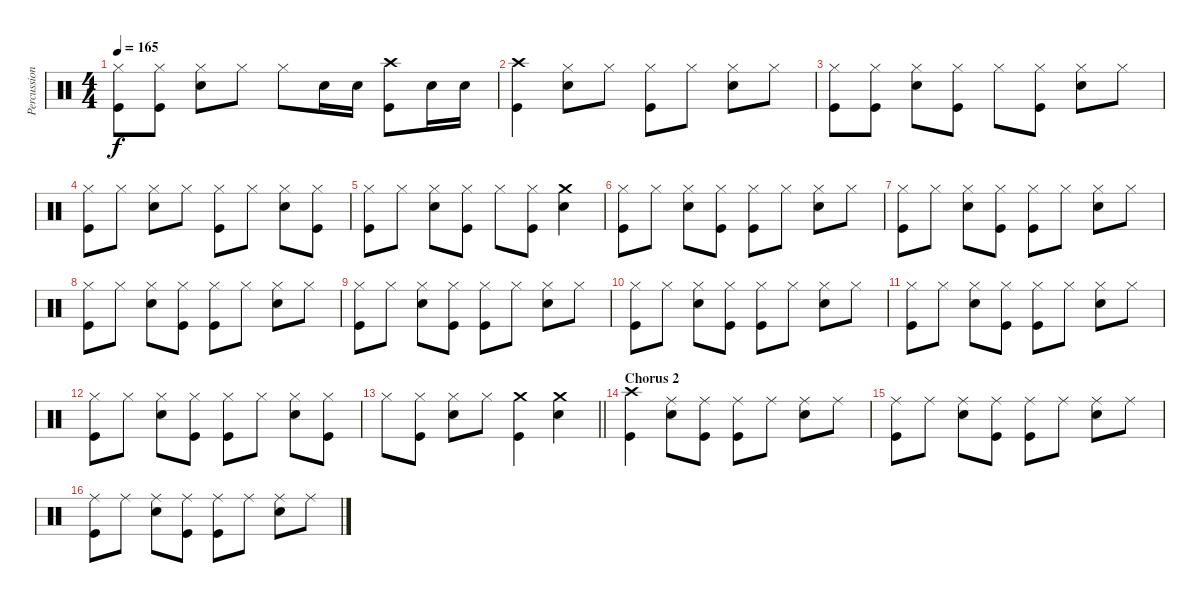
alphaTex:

\track ("Percussion" "Percussion") {instrument percussion}
\staff {score}
\articulation defaults
\ts (4 4)
\tempo 165
\clef neutral
\ks c
("Kick (hit)" "Hi-Hat (closed)").8{dy f} ("Kick (hit)" "Hi-Hat (closed)").8 ("Hi-Hat (closed)" "Snare (hit) 2").8 "Hi-Hat (closed)".8 "Hi-Hat (closed)".8 "Snare (hit) 2".16 "Snare (hit) 2".16 ("Kick (hit)" "Crash high (hit)").8 "Snare (hit) 2".16 "Snare (hit) 2".16 |
("Kick (hit)" "Crash high (hit)").4 ("Hi-Hat (closed)" "Snare (hit) 2").8 "Hi-Hat (closed)".8 ("Kick (hit)" "Hi-Hat (closed)").8 "Hi-Hat (closed)".8 ("Hi-Hat (closed)" "Snare (hit) 2").8 "Hi-Hat (closed)".8 |
("Kick (hit)" "Hi-Hat (closed)").8 ("Kick (hit)" "Hi-Hat (closed)").8 ("Hi-Hat (closed)" "Snare (hit) 2").8 ("Kick (hit)" "Hi-Hat (closed)").8 "Hi-Hat (closed)".8 ("Kick (hit)" "Hi-Hat (closed)").8 ("Hi-Hat (closed)" "Snare (hit) 2").8 "Hi-Hat (closed)".8 |
("Kick (hit)" "Hi-Hat (closed)").8 "Hi-Hat (closed)".8 ("Hi-Hat (closed)" "Snare (hit) 2").8 "Hi-Hat (closed)".8 ("Kick (hit)" "Hi-Hat (closed)").8 "Hi-Hat (closed)".8 ("Hi-Hat (closed)" "Snare (hit) 2").8 ("Kick (hit)" "Hi-Hat (closed)").8 |
("Kick (hit)" "Hi-Hat (closed)").8 "Hi-Hat (closed)".8 ("Hi-Hat (closed)" "Snare (hit) 2").8 ("Kick (hit)" "Hi-Hat (closed)").8 "Hi-Hat (closed)".8 ("Kick (hit)" "Hi-Hat (closed)").8 ("Crash medium (hit)" "Snare (hit) 2").4 |
("Kick (hit)" "Hi-Hat (closed)").8 "Hi-Hat (closed)".8 ("Hi-Hat (closed)" "Snare (hit) 2").8 ("Kick (hit)" "Hi-Hat (closed)").8 ("Kick (hit)" "Hi-Hat (closed)").8 "Hi-Hat (closed)".8 ("Hi-Hat (closed)" "Snare (hit) 2").8 "Hi-Hat (closed)".8 |
("Kick (hit)" "Hi-Hat (closed)").8 "Hi-Hat (closed)".8 ("Hi-Hat (closed)" "Snare (hit) 2").8 ("Kick (hit)" "Hi-Hat (closed)").8 ("Kick (hit)" "Hi-Hat (closed)").8 "Hi-Hat (closed)".8 ("Hi-Hat (closed)" "Snare (hit) 2").8 "Hi-Hat (closed)".8 |
("Kick (hit)" "Hi-Hat (closed)").8 "Hi-Hat (closed)".8 ("Hi-Hat (closed)" "Snare (hit) 2").8 ("Kick (hit)" "Hi-Hat (closed)").8 ("Kick (hit)" "Hi-Hat (closed)").8 "Hi-Hat (closed)".8 ("Hi-Hat (closed)" "Snare (hit) 2").8 "Hi-Hat (closed)".8 |
("Kick (hit)" "Hi-Hat (closed)").8 "Hi-Hat (closed)".8 ("Hi-Hat (closed)" "Snare (hit) 2").8 ("Kick (hit)" "Hi-Hat (closed)").8 ("Kick (hit)" "Hi-Hat (closed)").8 "Hi-Hat (closed)".8 ("Hi-Hat (closed)" "Snare (hit) 2").8 "Hi-Hat (closed)".8 |
("Kick (hit)" "Hi-Hat (closed)").8 "Hi-Hat (closed)".8 ("Hi-Hat (closed)" "Snare (hit) 2").8 ("Kick (hit)" "Hi-Hat (closed)").8 ("Kick (hit)" "Hi-Hat (closed)").8 "Hi-Hat (closed)".8 ("Hi-Hat (closed)" "Snare (hit) 2").8 "Hi-Hat (closed)".8 |
("Kick (hit)" "Hi-Hat (closed)").8 "Hi-Hat (closed)".8 ("Hi-Hat (closed)" "Snare (hit) 2").8 ("Kick (hit)" "Hi-Hat (closed)").8 ("Kick (hit)" "Hi-Hat (closed)").8 "Hi-Hat (closed)".8 ("Hi-Hat (closed)" "Snare (hit) 2").8 "Hi-Hat (closed)".8 |
("Kick (hit)" "Hi-Hat (closed)").8 "Hi-Hat (closed)".8 ("Hi-Hat (closed)" "Snare (hit) 2").8 ("Kick (hit)" "Hi-Hat (closed)").8 ("Kick (hit)" "Hi-Hat (closed)").8 "Hi-Hat (closed)".8 ("Hi-Hat (closed)" "Snare (hit) 2").8 ("Kick (hit)" "Hi-Hat (closed)").8 |
\barLineRight lightlight "Hi-Hat (closed)".8
("Kick (hit)" "Hi-Hat (closed)").8 ("Hi-Hat (closed)" "Snare (hit) 2").8 "Hi-Hat (closed)".8 ("Kick (hit)" "Crash medium (hit)").4 ("Crash medium (hit)" "Snare (hit) 2").4 |
\section ("" "Chorus 2")
("Kick (hit)" "Crash high (hit)").4 ("Ride (middle)" "Snare (hit) 2").8 ("Kick (hit)" "Ride (middle)").8 ("Kick (hit)" "Ride (middle)").8 "Ride (middle)".8 ("Ride (middle)" "Snare (hit) 2").8 "Ride (middle)".8 |
("Kick (hit)" "Ride (middle)").8 "Ride (middle)".8 ("Ride (middle)" "Snare (hit) 2").8 ("Kick (hit)" "Ride (middle)").8 ("Kick (hit)" "Ride (middle)").8 "Ride (middle)".8 ("Ride (middle)" "Snare (hit) 2").8 "Ride (middle)".8 |
("Kick (hit)" "Ride (middle)").8 "Ride (middle)".8 ("Ride (middle)" "Snare (hit) 2").8 ("Kick (hit)" "Ride (middle)").8 ("Kick (hit)" "Ride (middle)").8 "Ride (middle)".8 ("Ride (middle)" "Snare (hit) 2").8 "Ride (middle)".8
